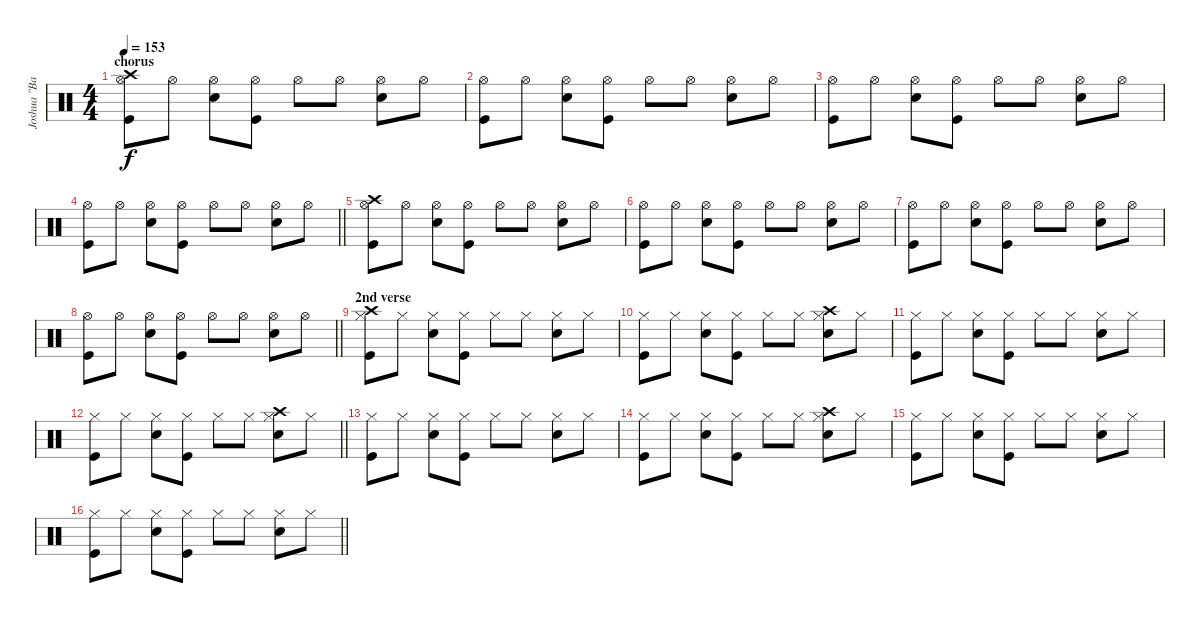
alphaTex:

\track ("Joshua \"Baby Duck\" Homme" "Joshua \"Ba") {instrument percussion}
\staff {score}
\articulation defaults
\ts (4 4)
\section ("" "chorus")
\tempo 153
\clef neutral
\ks c
("Kick (hit)" "Hi-Hat (open)" "Crash high (hit)").8{dy f} "Hi-Hat (open)".8 ("Electric Snare (hit)" "Hi-Hat (open)").8 ("Kick (hit)" "Hi-Hat (open)").8 "Hi-Hat (open)".8 "Hi-Hat (open)".8 ("Electric Snare (hit)" "Hi-Hat (open)").8 "Hi-Hat (open)".8 |
("Kick (hit)" "Hi-Hat (open)").8 "Hi-Hat (open)".8 ("Electric Snare (hit)" "Hi-Hat (open)").8 ("Kick (hit)" "Hi-Hat (open)").8 "Hi-Hat (open)".8 "Hi-Hat (open)".8 ("Electric Snare (hit)" "Hi-Hat (open)").8 "Hi-Hat (open)".8 |
("Kick (hit)" "Hi-Hat (open)").8 "Hi-Hat (open)".8 ("Electric Snare (hit)" "Hi-Hat (open)").8 ("Kick (hit)" "Hi-Hat (open)").8 "Hi-Hat (open)".8 "Hi-Hat (open)".8 ("Electric Snare (hit)" "Hi-Hat (open)").8 "Hi-Hat (open)".8 |
\barLineRight lightlight
("Kick (hit)" "Hi-Hat (open)").8 "Hi-Hat (open)".8 ("Electric Snare (hit)" "Hi-Hat (open)").8 ("Kick (hit)" "Hi-Hat (open)").8 "Hi-Hat (open)".8 "Hi-Hat (open)".8 ("Electric Snare (hit)" "Hi-Hat (open)").8 "Hi-Hat (open)".8 |
\section ("" "")
("Kick (hit)" "Hi-Hat (open)" "Crash high (hit)").8 "Hi-Hat (open)".8 ("Electric Snare (hit)" "Hi-Hat (open)").8 ("Kick (hit)" "Hi-Hat (open)").8 "Hi-Hat (open)".8 "Hi-Hat (open)".8 ("Electric Snare (hit)" "Hi-Hat (open)").8 "Hi-Hat (open)".8 |
("Kick (hit)" "Hi-Hat (open)").8 "Hi-Hat (open)".8 ("Electric Snare (hit)" "Hi-Hat (open)").8 ("Kick (hit)" "Hi-Hat (open)").8 "Hi-Hat (open)".8 "Hi-Hat (open)".8 ("Electric Snare (hit)" "Hi-Hat (open)").8 "Hi-Hat (open)".8 |
("Kick (hit)" "Hi-Hat (open)").8 "Hi-Hat (open)".8 ("Electric Snare (hit)" "Hi-Hat (open)").8 ("Kick (hit)" "Hi-Hat (open)").8 "Hi-Hat (open)".8 "Hi-Hat (open)".8 ("Electric Snare (hit)" "Hi-Hat (open)").8 "Hi-Hat (open)".8 |
\barLineRight lightlight
("Kick (hit)" "Hi-Hat (open)").8 "Hi-Hat (open)".8 ("Electric Snare (hit)" "Hi-Hat (open)").8 ("Kick (hit)" "Hi-Hat (open)").8 "Hi-Hat (open)".8 "Hi-Hat (open)".8 ("Electric Snare (hit)" "Hi-Hat (open)").8 "Hi-Hat (open)".8 |
\section ("" "2nd verse")
("Kick (hit)" "Hi-Hat (closed)" "Crash high (hit)").8 "Hi-Hat (closed)".8 ("Electric Snare (hit)" "Hi-Hat (closed)").8 ("Kick (hit)" "Hi-Hat (closed)").8 "Hi-Hat (closed)".8 "Hi-Hat (closed)".8 ("Electric Snare (hit)" "Hi-Hat (closed)").8 "Hi-Hat (closed)".8 |
("Kick (hit)" "Hi-Hat (closed)").8 "Hi-Hat (closed)".8 ("Electric Snare (hit)" "Hi-Hat (closed)").8 ("Kick (hit)" "Hi-Hat (closed)").8 "Hi-Hat (closed)".8 "Hi-Hat (closed)".8 ("Electric Snare (hit)" "Hi-Hat (closed)" "Crash high (hit)").8 "Hi-Hat (closed)".8 |
("Kick (hit)" "Hi-Hat (closed)").8 "Hi-Hat (closed)".8 ("Electric Snare (hit)" "Hi-Hat (closed)").8 ("Kick (hit)" "Hi-Hat (closed)").8 "Hi-Hat (closed)".8 "Hi-Hat (closed)".8 ("Electric Snare (hit)" "Hi-Hat (closed)").8 "Hi-Hat (closed)".8 |
\barLineRight lightlight
("Kick (hit)" "Hi-Hat (closed)").8 "Hi-Hat (closed)".8 ("Electric Snare (hit)" "Hi-Hat (closed)").8 ("Kick (hit)" "Hi-Hat (closed)").8 "Hi-Hat (closed)".8 "Hi-Hat (closed)".8 ("Electric Snare (hit)" "Hi-Hat (closed)" "Crash high (hit)").8 "Hi-Hat (closed)".8 |
\section ("" "")
("Kick (hit)" "Hi-Hat (closed)").8 "Hi-Hat (closed)".8 ("Electric Snare (hit)" "Hi-Hat (closed)").8 ("Kick (hit)" "Hi-Hat (closed)").8 "Hi-Hat (closed)".8 "Hi-Hat (closed)".8 ("Electric Snare (hit)" "Hi-Hat (closed)").8 "Hi-Hat (closed)".8 |
("Kick (hit)" "Hi-Hat (closed)").8 "Hi-Hat (closed)".8 ("Electric Snare (hit)" "Hi-Hat (closed)").8 ("Kick (hit)" "Hi-Hat (closed)").8 "Hi-Hat (closed)".8 "Hi-Hat (closed)".8 ("Electric Snare (hit)" "Hi-Hat (closed)" "Crash high (hit)").8 "Hi-Hat (closed)".8 |
("Kick (hit)" "Hi-Hat (closed)").8 "Hi-Hat (closed)".8 ("Electric Snare (hit)" "Hi-Hat (closed)").8 ("Kick (hit)" "Hi-Hat (closed)").8 "Hi-Hat (closed)".8 "Hi-Hat (closed)".8 ("Electric Snare (hit)" "Hi-Hat (closed)").8 "Hi-Hat (closed)".8 |
\barLineRight lightlight
("Kick (hit)" "Hi-Hat (closed)").8 "Hi-Hat (closed)".8 ("Electric Snare (hit)" "Hi-Hat (closed)").8 ("Kick (hit)" "Hi-Hat (closed)").8 "Hi-Hat (closed)".8 "Hi-Hat (closed)".8 ("Electric Snare (hit)" "Hi-Hat (closed)").8 "Hi-Hat (closed)".8
